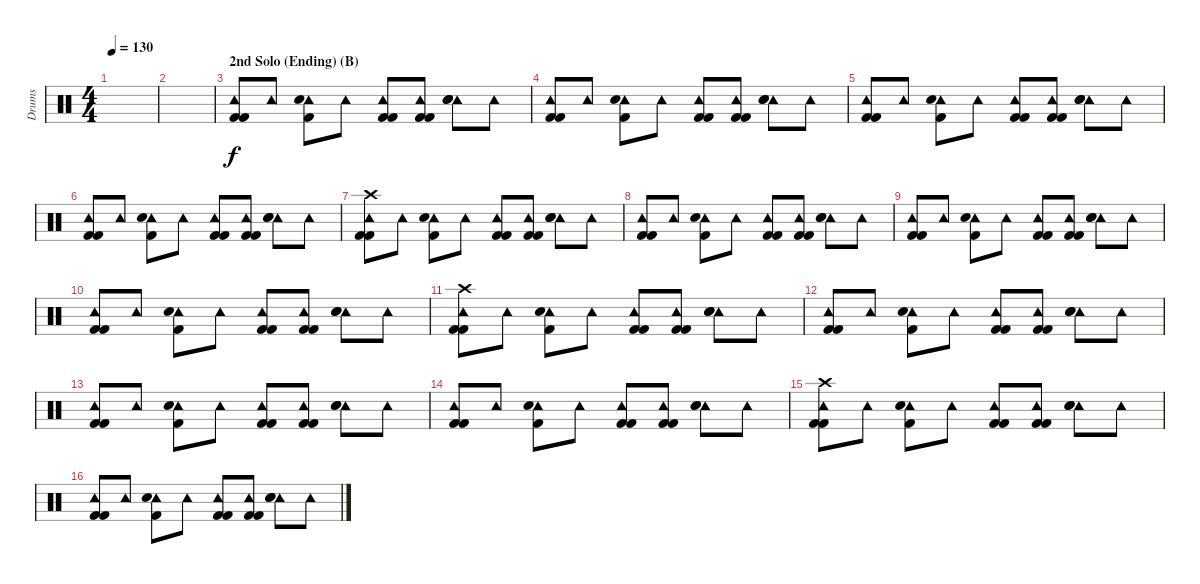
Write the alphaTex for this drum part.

\track ("Drums" "Drums") {instrument percussion}
\staff {score}
\articulation defaults
\ts (4 4)
\tempo 130
\clef neutral
\ks c
|
|
\section ("" "2nd Solo (Ending) (B)")
("Tambourine (hit)" "Kick (hit) 2" "Kick (hit) 2").8 "Tambourine (hit)".8 ("Tambourine (hit)" "Kick (hit) 2" "Snare (hit) 2").8 "Tambourine (hit)".8 ("Tambourine (hit)" "Kick (hit) 2" "Kick (hit) 2").8 ("Tambourine (hit)" "Kick (hit) 2" "Kick (hit) 2").8 ("Tambourine (hit)" "Snare (hit) 2" "Snare (hit) 2").8 "Tambourine (hit)".8 |
("Tambourine (hit)" "Kick (hit) 2" "Kick (hit) 2").8 "Tambourine (hit)".8 ("Tambourine (hit)" "Kick (hit) 2" "Snare (hit) 2").8 "Tambourine (hit)".8 ("Tambourine (hit)" "Kick (hit) 2" "Kick (hit) 2").8 ("Tambourine (hit)" "Kick (hit) 2" "Kick (hit) 2").8 ("Tambourine (hit)" "Snare (hit) 2" "Snare (hit) 2").8 "Tambourine (hit)".8 |
("Tambourine (hit)" "Kick (hit) 2" "Kick (hit) 2").8 "Tambourine (hit)".8 ("Tambourine (hit)" "Kick (hit) 2" "Snare (hit) 2").8 "Tambourine (hit)".8 ("Tambourine (hit)" "Kick (hit) 2" "Kick (hit) 2").8 ("Tambourine (hit)" "Kick (hit) 2" "Kick (hit) 2").8 ("Tambourine (hit)" "Snare (hit) 2" "Snare (hit) 2").8 "Tambourine (hit)".8 |
("Tambourine (hit)" "Kick (hit) 2" "Kick (hit) 2").8 "Tambourine (hit)".8 ("Tambourine (hit)" "Kick (hit) 2" "Snare (hit) 2").8 "Tambourine (hit)".8 ("Tambourine (hit)" "Kick (hit) 2" "Kick (hit) 2").8 ("Tambourine (hit)" "Kick (hit) 2" "Kick (hit) 2").8 ("Tambourine (hit)" "Snare (hit) 2" "Snare (hit) 2").8 "Tambourine (hit)".8 |
("Tambourine (hit)" "Kick (hit) 2" "Kick (hit) 2" "Crash high (hit)").8 "Tambourine (hit)".8 ("Tambourine (hit)" "Kick (hit) 2" "Snare (hit) 2").8 "Tambourine (hit)".8 ("Tambourine (hit)" "Kick (hit) 2" "Kick (hit) 2").8 ("Tambourine (hit)" "Kick (hit) 2" "Kick (hit) 2").8 ("Tambourine (hit)" "Snare (hit) 2" "Snare (hit) 2").8 "Tambourine (hit)".8 |
("Tambourine (hit)" "Kick (hit) 2" "Kick (hit) 2").8 "Tambourine (hit)".8 ("Tambourine (hit)" "Kick (hit) 2" "Snare (hit) 2").8 "Tambourine (hit)".8 ("Tambourine (hit)" "Kick (hit) 2" "Kick (hit) 2").8 ("Tambourine (hit)" "Kick (hit) 2" "Kick (hit) 2").8 ("Tambourine (hit)" "Snare (hit) 2" "Snare (hit) 2").8 "Tambourine (hit)".8 |
("Tambourine (hit)" "Kick (hit) 2" "Kick (hit) 2").8 "Tambourine (hit)".8 ("Tambourine (hit)" "Kick (hit) 2" "Snare (hit) 2").8 "Tambourine (hit)".8 ("Tambourine (hit)" "Kick (hit) 2" "Kick (hit) 2").8 ("Tambourine (hit)" "Kick (hit) 2" "Kick (hit) 2").8 ("Tambourine (hit)" "Snare (hit) 2" "Snare (hit) 2").8 "Tambourine (hit)".8 |
("Tambourine (hit)" "Kick (hit) 2" "Kick (hit) 2").8 "Tambourine (hit)".8 ("Tambourine (hit)" "Kick (hit) 2" "Snare (hit) 2").8 "Tambourine (hit)".8 ("Tambourine (hit)" "Kick (hit) 2" "Kick (hit) 2").8 ("Tambourine (hit)" "Kick (hit) 2" "Kick (hit) 2").8 ("Tambourine (hit)" "Snare (hit) 2" "Snare (hit) 2").8 "Tambourine (hit)".8 |
("Tambourine (hit)" "Kick (hit) 2" "Kick (hit) 2" "Crash high (hit)").8 "Tambourine (hit)".8 ("Tambourine (hit)" "Kick (hit) 2" "Snare (hit) 2").8 "Tambourine (hit)".8 ("Tambourine (hit)" "Kick (hit) 2" "Kick (hit) 2").8 ("Tambourine (hit)" "Kick (hit) 2" "Kick (hit) 2").8 ("Tambourine (hit)" "Snare (hit) 2" "Snare (hit) 2").8 "Tambourine (hit)".8 |
("Tambourine (hit)" "Kick (hit) 2" "Kick (hit) 2").8 "Tambourine (hit)".8 ("Tambourine (hit)" "Kick (hit) 2" "Snare (hit) 2").8 "Tambourine (hit)".8 ("Tambourine (hit)" "Kick (hit) 2" "Kick (hit) 2").8 ("Tambourine (hit)" "Kick (hit) 2" "Kick (hit) 2").8 ("Tambourine (hit)" "Snare (hit) 2" "Snare (hit) 2").8 "Tambourine (hit)".8 |
("Tambourine (hit)" "Kick (hit) 2" "Kick (hit) 2").8 "Tambourine (hit)".8 ("Tambourine (hit)" "Kick (hit) 2" "Snare (hit) 2").8 "Tambourine (hit)".8 ("Tambourine (hit)" "Kick (hit) 2" "Kick (hit) 2").8 ("Tambourine (hit)" "Kick (hit) 2" "Kick (hit) 2").8 ("Tambourine (hit)" "Snare (hit) 2" "Snare (hit) 2").8 "Tambourine (hit)".8 |
("Tambourine (hit)" "Kick (hit) 2" "Kick (hit) 2").8 "Tambourine (hit)".8 ("Tambourine (hit)" "Kick (hit) 2" "Snare (hit) 2").8 "Tambourine (hit)".8 ("Tambourine (hit)" "Kick (hit) 2" "Kick (hit) 2").8 ("Tambourine (hit)" "Kick (hit) 2" "Kick (hit) 2").8 ("Tambourine (hit)" "Snare (hit) 2" "Snare (hit) 2").8 "Tambourine (hit)".8 |
("Tambourine (hit)" "Kick (hit) 2" "Kick (hit) 2" "Crash high (hit)").8 "Tambourine (hit)".8 ("Tambourine (hit)" "Kick (hit) 2" "Snare (hit) 2").8 "Tambourine (hit)".8 ("Tambourine (hit)" "Kick (hit) 2" "Kick (hit) 2").8 ("Tambourine (hit)" "Kick (hit) 2" "Kick (hit) 2").8 ("Tambourine (hit)" "Snare (hit) 2" "Snare (hit) 2").8 "Tambourine (hit)".8 |
("Tambourine (hit)" "Kick (hit) 2" "Kick (hit) 2").8 "Tambourine (hit)".8 ("Tambourine (hit)" "Kick (hit) 2" "Snare (hit) 2").8 "Tambourine (hit)".8 ("Tambourine (hit)" "Kick (hit) 2" "Kick (hit) 2").8 ("Tambourine (hit)" "Kick (hit) 2" "Kick (hit) 2").8 ("Tambourine (hit)" "Snare (hit) 2" "Snare (hit) 2").8 "Tambourine (hit)".8
